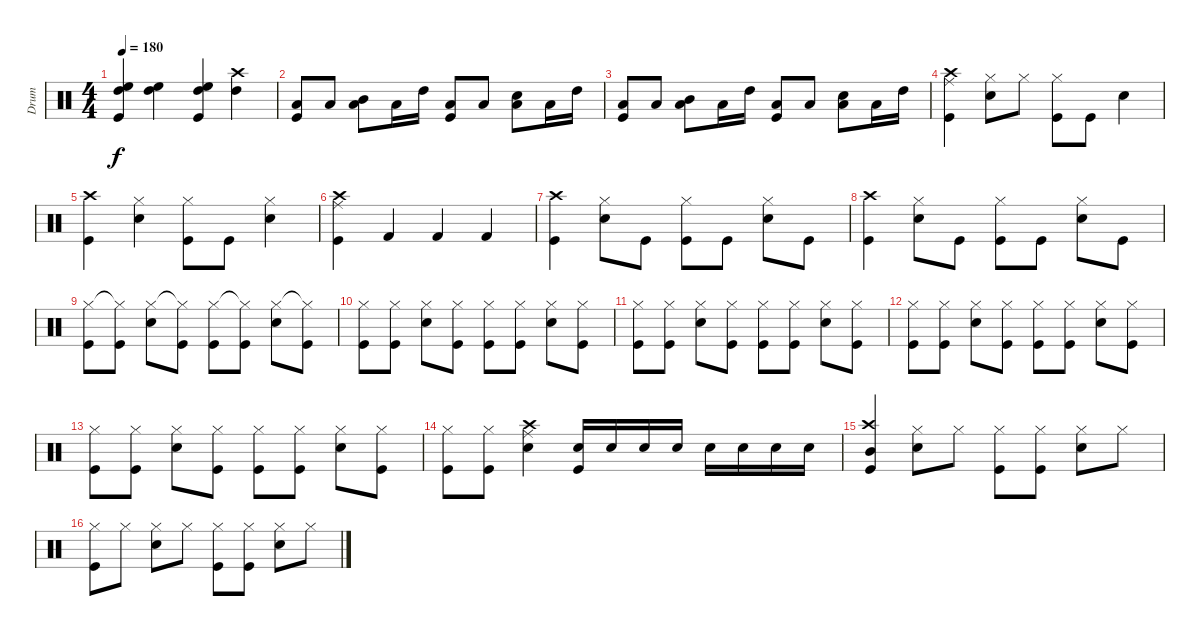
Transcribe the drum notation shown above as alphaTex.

\track ("Drum" "Drum") {instrument percussion}
\staff {score}
\articulation defaults
\ts (4 4)
\tempo 180
\clef neutral
\ks c
("High Floor Tom (hit)" "High Tom (hit)" "Kick (hit)").4{dy f} ("High Floor Tom (hit)" "High Tom (hit)").4 ("High Floor Tom (hit)" "High Tom (hit)" "Kick (hit)").4 ("Crash high (hit)" "High Tom (hit)").4 |
("Low Tom (hit)" "Kick (hit)").8 "Low Tom (hit)".8 ("Mid Tom (hit)" "Low Tom (hit)").8 "Low Tom (hit)".16 "High Tom (hit)".16 ("Low Tom (hit)" "Kick (hit)").8 "Low Tom (hit)".8 ("Snare (hit) 2" "Low Tom (hit)").8 "Low Tom (hit)".16 "High Tom (hit)".16 |
("Low Tom (hit)" "Kick (hit)").8 "Low Tom (hit)".8 ("Mid Tom (hit)" "Low Tom (hit)").8 "Low Tom (hit)".16 "High Tom (hit)".16 ("Low Tom (hit)" "Kick (hit)").8 "Low Tom (hit)".8 ("Snare (hit) 2" "Low Tom (hit)").8 "Low Tom (hit)".16 "High Tom (hit)".16 |
("Crash high (hit)" "Ride (middle)" "Kick (hit)").4 ("Hi-Hat (closed)" "Snare (hit) 2").8 "Hi-Hat (closed)".8 ("Hi-Hat (closed)" "Kick (hit)").8 "Kick (hit)".8 "Snare (hit) 2".4 |
("Crash high (hit)" "Kick (hit)").4 ("Hi-Hat (closed)" "Snare (hit) 2").4 ("Hi-Hat (closed)" "Kick (hit)").8 "Kick (hit)".8 ("Hi-Hat (closed)" "Snare (hit) 2").4 |
("Crash high (hit)" "Ride (middle)" "Kick (hit)").4 "Kick (hit) 2".4 "Kick (hit) 2".4 "Kick (hit) 2".4 |
("Crash high (hit)" "Kick (hit)").4 ("Hi-Hat (closed)" "Snare (hit) 2").8 "Kick (hit)".8 ("Hi-Hat (closed)" "Kick (hit)").8 "Kick (hit)".8 ("Hi-Hat (closed)" "Snare (hit) 2").8 "Kick (hit)".8 |
("Crash high (hit)" "Kick (hit)").4 ("Hi-Hat (closed)" "Snare (hit) 2").8 "Kick (hit)".8 ("Hi-Hat (closed)" "Kick (hit)").8 "Kick (hit)".8 ("Hi-Hat (closed)" "Snare (hit) 2").8 "Kick (hit)".8 |
("Hi-Hat (closed)" "Kick (hit)").8 ("Hi-Hat (closed)"{t} "Kick (hit)").8 ("Hi-Hat (closed)" "Snare (hit) 2").8 ("Hi-Hat (closed)"{t} "Kick (hit)").8 ("Hi-Hat (closed)" "Kick (hit)").8 ("Hi-Hat (closed)"{t} "Kick (hit)").8 ("Hi-Hat (closed)" "Snare (hit) 2").8 ("Hi-Hat (closed)"{t} "Kick (hit)").8 |
("Hi-Hat (closed)" "Kick (hit)").8 ("Hi-Hat (closed)" "Kick (hit)").8 ("Hi-Hat (closed)" "Snare (hit) 2").8 ("Hi-Hat (closed)" "Kick (hit)").8 ("Hi-Hat (closed)" "Kick (hit)").8 ("Hi-Hat (closed)" "Kick (hit)").8 ("Hi-Hat (closed)" "Snare (hit) 2").8 ("Hi-Hat (closed)" "Kick (hit)").8 |
("Hi-Hat (closed)" "Kick (hit)").8 ("Hi-Hat (closed)" "Kick (hit)").8 ("Hi-Hat (closed)" "Snare (hit) 2").8 ("Hi-Hat (closed)" "Kick (hit)").8 ("Hi-Hat (closed)" "Kick (hit)").8 ("Hi-Hat (closed)" "Kick (hit)").8 ("Hi-Hat (closed)" "Snare (hit) 2").8 ("Hi-Hat (closed)" "Kick (hit)").8 |
("Hi-Hat (closed)" "Kick (hit)").8 ("Hi-Hat (closed)" "Kick (hit)").8 ("Hi-Hat (closed)" "Snare (hit) 2").8 ("Hi-Hat (closed)" "Kick (hit)").8 ("Hi-Hat (closed)" "Kick (hit)").8 ("Hi-Hat (closed)" "Kick (hit)").8 ("Hi-Hat (closed)" "Snare (hit) 2").8 ("Hi-Hat (closed)" "Kick (hit)").8 |
("Hi-Hat (closed)" "Kick (hit)").8 ("Hi-Hat (closed)" "Kick (hit)").8 ("Hi-Hat (closed)" "Snare (hit) 2").8 ("Hi-Hat (closed)" "Kick (hit)").8 ("Hi-Hat (closed)" "Kick (hit)").8 ("Hi-Hat (closed)" "Kick (hit)").8 ("Hi-Hat (closed)" "Snare (hit) 2").8 ("Hi-Hat (closed)" "Kick (hit)").8 |
("Hi-Hat (closed)" "Kick (hit)").8 ("Hi-Hat (closed)" "Kick (hit)").8 ("Crash high (hit)" "Ride (middle)" "Snare (hit) 2").4 ("Snare (hit) 2" "Kick (hit)").16 "Snare (hit) 2".16 "Snare (hit) 2".16 "Snare (hit) 2".16 "Snare (hit) 2".16 "Snare (hit) 2".16 "Snare (hit) 2".16 "Snare (hit) 2".16 |
("Crash high (hit)" "Mid Tom (hit)" "Kick (hit)").4 ("Hi-Hat (closed)" "Snare (hit) 2").8 "Hi-Hat (closed)".8 ("Hi-Hat (closed)" "Kick (hit)").8 ("Hi-Hat (closed)" "Kick (hit)").8 ("Hi-Hat (closed)" "Snare (hit) 2").8 "Hi-Hat (closed)".8 |
("Hi-Hat (closed)" "Kick (hit)").8 "Hi-Hat (closed)".8 ("Hi-Hat (closed)" "Snare (hit) 2").8 "Hi-Hat (closed)".8 ("Hi-Hat (closed)" "Kick (hit)").8 ("Hi-Hat (closed)" "Kick (hit)").8 ("Hi-Hat (closed)" "Snare (hit) 2").8 "Hi-Hat (closed)".8
